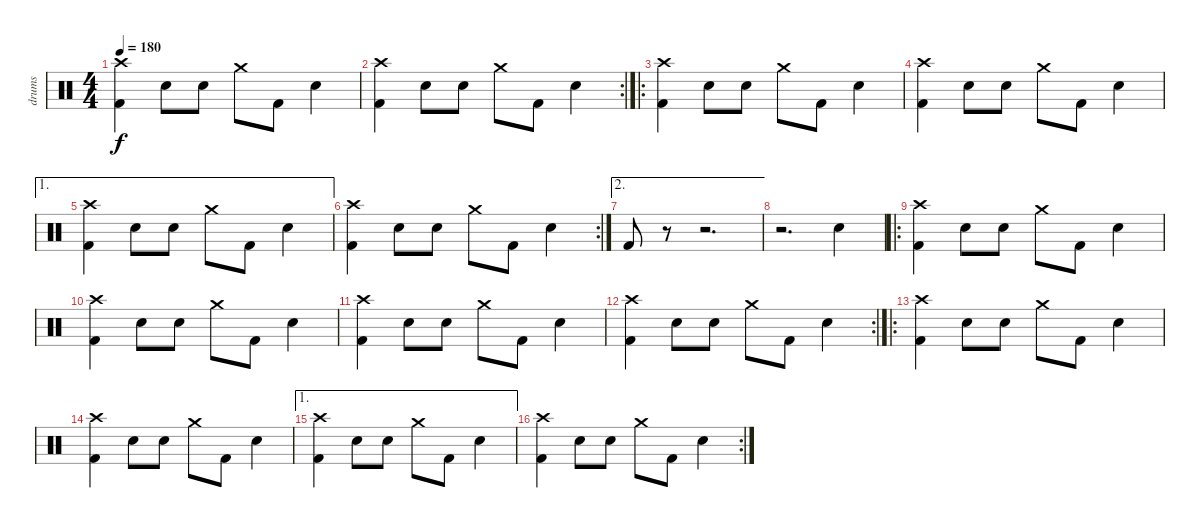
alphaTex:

\track ("drums" "drums") {instrument percussion}
\staff {score}
\articulation defaults
\ts (4 4)
\tempo 180
\clef neutral
\ks c
("Crash high (hit)" "Kick (hit) 2").4{dy f} "Electric Snare (hit)".8 "Electric Snare (hit)".8 "Crash medium (hit)".8 "Kick (hit) 2".8 "Electric Snare (hit)".4 |
\rc 2
("Crash high (hit)" "Kick (hit) 2").4 "Electric Snare (hit)".8 "Electric Snare (hit)".8 "Crash medium (hit)".8 "Kick (hit) 2".8 "Electric Snare (hit)".4 |
\ro
("Crash high (hit)" "Kick (hit) 2").4 "Electric Snare (hit)".8 "Electric Snare (hit)".8 "Crash medium (hit)".8 "Kick (hit) 2".8 "Electric Snare (hit)".4 |
("Crash high (hit)" "Kick (hit) 2").4 "Electric Snare (hit)".8 "Electric Snare (hit)".8 "Crash medium (hit)".8 "Kick (hit) 2".8 "Electric Snare (hit)".4 |
\ae 1
("Crash high (hit)" "Kick (hit) 2").4 "Electric Snare (hit)".8 "Electric Snare (hit)".8 "Crash medium (hit)".8 "Kick (hit) 2".8 "Electric Snare (hit)".4 |
\rc 2
("Crash high (hit)" "Kick (hit) 2").4 "Electric Snare (hit)".8 "Electric Snare (hit)".8 "Crash medium (hit)".8 "Kick (hit) 2".8 "Electric Snare (hit)".4 |
\ae 2 "Kick (hit) 2".8
r.8 r.2{d} |
r.2{d} "Electric Snare (hit)".4 |
\ro
("Crash high (hit)" "Kick (hit) 2").4 "Electric Snare (hit)".8 "Electric Snare (hit)".8 "Crash medium (hit)".8 "Kick (hit) 2".8 "Electric Snare (hit)".4 |
("Crash high (hit)" "Kick (hit) 2").4 "Electric Snare (hit)".8 "Electric Snare (hit)".8 "Crash medium (hit)".8 "Kick (hit) 2".8 "Electric Snare (hit)".4 |
("Crash high (hit)" "Kick (hit) 2").4 "Electric Snare (hit)".8 "Electric Snare (hit)".8 "Crash medium (hit)".8 "Kick (hit) 2".8 "Electric Snare (hit)".4 |
\rc 2
("Crash high (hit)" "Kick (hit) 2").4 "Electric Snare (hit)".8 "Electric Snare (hit)".8 "Crash medium (hit)".8 "Kick (hit) 2".8 "Electric Snare (hit)".4 |
\ro
("Crash high (hit)" "Kick (hit) 2").4 "Electric Snare (hit)".8 "Electric Snare (hit)".8 "Crash medium (hit)".8 "Kick (hit) 2".8 "Electric Snare (hit)".4 |
("Crash high (hit)" "Kick (hit) 2").4 "Electric Snare (hit)".8 "Electric Snare (hit)".8 "Crash medium (hit)".8 "Kick (hit) 2".8 "Electric Snare (hit)".4 |
\ae 1
("Crash high (hit)" "Kick (hit) 2").4 "Electric Snare (hit)".8 "Electric Snare (hit)".8 "Crash medium (hit)".8 "Kick (hit) 2".8 "Electric Snare (hit)".4 |
\rc 2
("Crash high (hit)" "Kick (hit) 2").4 "Electric Snare (hit)".8 "Electric Snare (hit)".8 "Crash medium (hit)".8 "Kick (hit) 2".8 "Electric Snare (hit)".4
